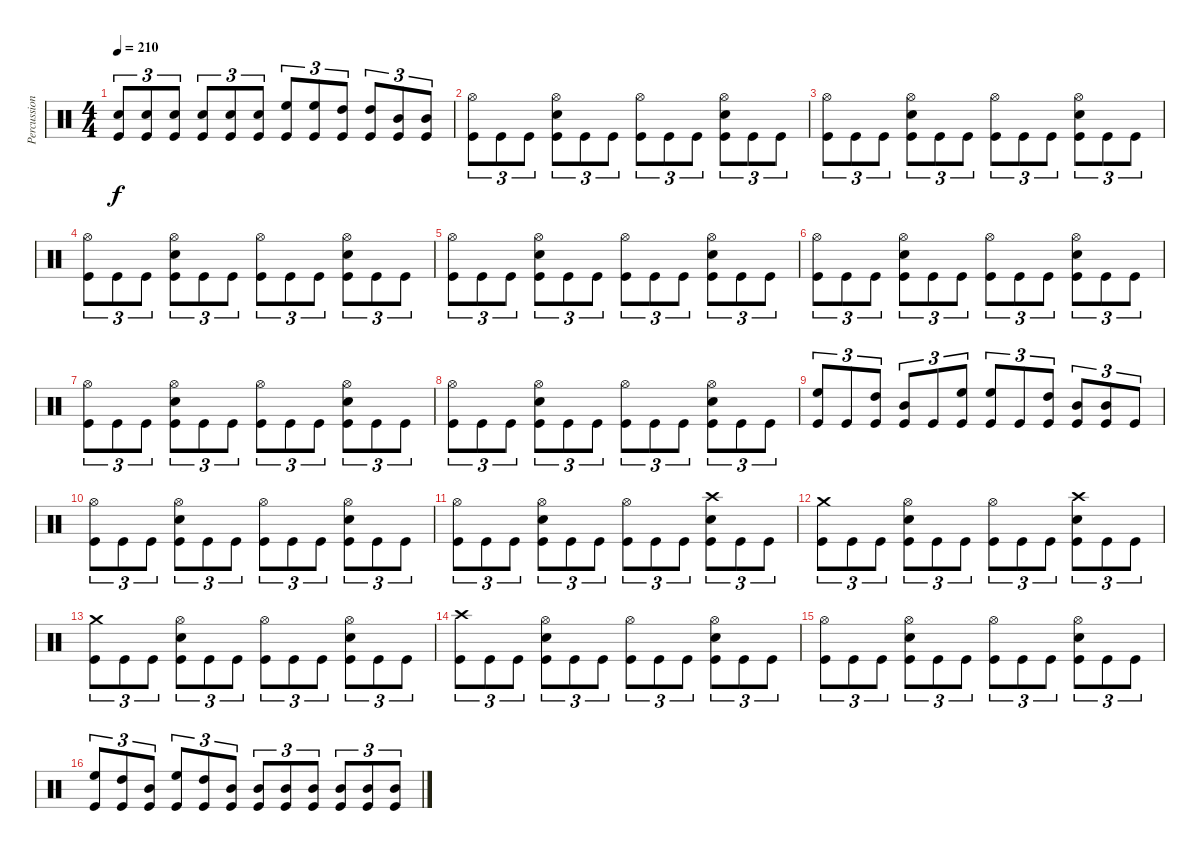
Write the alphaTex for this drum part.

\track ("Percussion" "Percussion") {instrument percussion}
\staff {score}
\articulation defaults
\ts (4 4)
\tempo 210
\clef neutral
\ks c
("Snare (hit) 2" "Kick (hit)").8{tu (3 2) dy f} ("Snare (hit) 2" "Kick (hit)").8{tu (3 2)} ("Snare (hit) 2" "Kick (hit)").8{tu (3 2)} ("Snare (hit) 2" "Kick (hit)").8{tu (3 2)} ("Snare (hit) 2" "Kick (hit)").8{tu (3 2)} ("Snare (hit) 2" "Kick (hit)").8{tu (3 2)} ("High Floor Tom (hit)" "Kick (hit)").8{tu (3 2)} ("High Floor Tom (hit)" "Kick (hit)").8{tu (3 2)} ("High Tom (hit)" "Kick (hit)").8{tu (3 2)} ("High Tom (hit)" "Kick (hit)").8{tu (3 2)} ("Mid Tom (hit)" "Kick (hit)").8{tu (3 2)} ("Mid Tom (hit)" "Kick (hit)").8{tu (3 2)} |
("Hi-Hat (open)" "Kick (hit)").8{tu (3 2)} "Kick (hit)".8{tu (3 2)} "Kick (hit)".8{tu (3 2)} ("Snare (hit) 2" "Hi-Hat (open)" "Kick (hit)").8{tu (3 2)} "Kick (hit)".8{tu (3 2)} "Kick (hit)".8{tu (3 2)} ("Hi-Hat (open)" "Kick (hit)").8{tu (3 2)} "Kick (hit)".8{tu (3 2)} "Kick (hit)".8{tu (3 2)} ("Snare (hit) 2" "Hi-Hat (open)" "Kick (hit)").8{tu (3 2)} "Kick (hit)".8{tu (3 2)} "Kick (hit)".8{tu (3 2)} |
("Hi-Hat (open)" "Kick (hit)").8{tu (3 2)} "Kick (hit)".8{tu (3 2)} "Kick (hit)".8{tu (3 2)} ("Snare (hit) 2" "Hi-Hat (open)" "Kick (hit)").8{tu (3 2)} "Kick (hit)".8{tu (3 2)} "Kick (hit)".8{tu (3 2)} ("Hi-Hat (open)" "Kick (hit)").8{tu (3 2)} "Kick (hit)".8{tu (3 2)} "Kick (hit)".8{tu (3 2)} ("Snare (hit) 2" "Hi-Hat (open)" "Kick (hit)").8{tu (3 2)} "Kick (hit)".8{tu (3 2)} "Kick (hit)".8{tu (3 2)} |
("Hi-Hat (open)" "Kick (hit)").8{tu (3 2)} "Kick (hit)".8{tu (3 2)} "Kick (hit)".8{tu (3 2)} ("Snare (hit) 2" "Hi-Hat (open)" "Kick (hit)").8{tu (3 2)} "Kick (hit)".8{tu (3 2)} "Kick (hit)".8{tu (3 2)} ("Hi-Hat (open)" "Kick (hit)").8{tu (3 2)} "Kick (hit)".8{tu (3 2)} "Kick (hit)".8{tu (3 2)} ("Snare (hit) 2" "Hi-Hat (open)" "Kick (hit)").8{tu (3 2)} "Kick (hit)".8{tu (3 2)} "Kick (hit)".8{tu (3 2)} |
("Hi-Hat (open)" "Kick (hit)").8{tu (3 2)} "Kick (hit)".8{tu (3 2)} "Kick (hit)".8{tu (3 2)} ("Snare (hit) 2" "Hi-Hat (open)" "Kick (hit)").8{tu (3 2)} "Kick (hit)".8{tu (3 2)} "Kick (hit)".8{tu (3 2)} ("Hi-Hat (open)" "Kick (hit)").8{tu (3 2)} "Kick (hit)".8{tu (3 2)} "Kick (hit)".8{tu (3 2)} ("Snare (hit) 2" "Hi-Hat (open)" "Kick (hit)").8{tu (3 2)} "Kick (hit)".8{tu (3 2)} "Kick (hit)".8{tu (3 2)} |
("Hi-Hat (open)" "Kick (hit)").8{tu (3 2)} "Kick (hit)".8{tu (3 2)} "Kick (hit)".8{tu (3 2)} ("Snare (hit) 2" "Hi-Hat (open)" "Kick (hit)").8{tu (3 2)} "Kick (hit)".8{tu (3 2)} "Kick (hit)".8{tu (3 2)} ("Hi-Hat (open)" "Kick (hit)").8{tu (3 2)} "Kick (hit)".8{tu (3 2)} "Kick (hit)".8{tu (3 2)} ("Snare (hit) 2" "Hi-Hat (open)" "Kick (hit)").8{tu (3 2)} "Kick (hit)".8{tu (3 2)} "Kick (hit)".8{tu (3 2)} |
("Hi-Hat (open)" "Kick (hit)").8{tu (3 2)} "Kick (hit)".8{tu (3 2)} "Kick (hit)".8{tu (3 2)} ("Snare (hit) 2" "Hi-Hat (open)" "Kick (hit)").8{tu (3 2)} "Kick (hit)".8{tu (3 2)} "Kick (hit)".8{tu (3 2)} ("Hi-Hat (open)" "Kick (hit)").8{tu (3 2)} "Kick (hit)".8{tu (3 2)} "Kick (hit)".8{tu (3 2)} ("Snare (hit) 2" "Hi-Hat (open)" "Kick (hit)").8{tu (3 2)} "Kick (hit)".8{tu (3 2)} "Kick (hit)".8{tu (3 2)} |
("Hi-Hat (open)" "Kick (hit)").8{tu (3 2)} "Kick (hit)".8{tu (3 2)} "Kick (hit)".8{tu (3 2)} ("Snare (hit) 2" "Hi-Hat (open)" "Kick (hit)").8{tu (3 2)} "Kick (hit)".8{tu (3 2)} "Kick (hit)".8{tu (3 2)} ("Hi-Hat (open)" "Kick (hit)").8{tu (3 2)} "Kick (hit)".8{tu (3 2)} "Kick (hit)".8{tu (3 2)} ("Snare (hit) 2" "Hi-Hat (open)" "Kick (hit)").8{tu (3 2)} "Kick (hit)".8{tu (3 2)} "Kick (hit)".8{tu (3 2)} |
("High Floor Tom (hit)" "Kick (hit)").8{tu (3 2)} "Kick (hit)".8{tu (3 2)} ("High Tom (hit)" "Kick (hit)").8{tu (3 2)} ("Mid Tom (hit)" "Kick (hit)").8{tu (3 2)} "Kick (hit)".8{tu (3 2)} ("High Floor Tom (hit)" "Kick (hit)").8{tu (3 2)} ("High Floor Tom (hit)" "Kick (hit)").8{tu (3 2)} "Kick (hit)".8{tu (3 2)} ("High Tom (hit)" "Kick (hit)").8{tu (3 2)} ("Mid Tom (hit)" "Kick (hit)").8{tu (3 2)} ("Mid Tom (hit)" "Kick (hit)").8{tu (3 2)} "Kick (hit)".8{tu (3 2)} |
("Hi-Hat (open)" "Kick (hit)").8{tu (3 2)} "Kick (hit)".8{tu (3 2)} "Kick (hit)".8{tu (3 2)} ("Snare (hit) 2" "Hi-Hat (open)" "Kick (hit)").8{tu (3 2)} "Kick (hit)".8{tu (3 2)} "Kick (hit)".8{tu (3 2)} ("Hi-Hat (open)" "Kick (hit)").8{tu (3 2)} "Kick (hit)".8{tu (3 2)} "Kick (hit)".8{tu (3 2)} ("Snare (hit) 2" "Hi-Hat (open)" "Kick (hit)").8{tu (3 2)} "Kick (hit)".8{tu (3 2)} "Kick (hit)".8{tu (3 2)} |
("Hi-Hat (open)" "Kick (hit)").8{tu (3 2)} "Kick (hit)".8{tu (3 2)} "Kick (hit)".8{tu (3 2)} ("Snare (hit) 2" "Hi-Hat (open)" "Kick (hit)").8{tu (3 2)} "Kick (hit)".8{tu (3 2)} "Kick (hit)".8{tu (3 2)} ("Hi-Hat (open)" "Kick (hit)").8{tu (3 2)} "Kick (hit)".8{tu (3 2)} "Kick (hit)".8{tu (3 2)} ("Snare (hit) 2" "Crash high (hit)" "Kick (hit)").8{tu (3 2)} "Kick (hit)".8{tu (3 2)} "Kick (hit)".8{tu (3 2)} |
("Crash medium (hit)" "Kick (hit)").8{tu (3 2)} "Kick (hit)".8{tu (3 2)} "Kick (hit)".8{tu (3 2)} ("Snare (hit) 2" "Hi-Hat (open)" "Kick (hit)").8{tu (3 2)} "Kick (hit)".8{tu (3 2)} "Kick (hit)".8{tu (3 2)} ("Hi-Hat (open)" "Kick (hit)").8{tu (3 2)} "Kick (hit)".8{tu (3 2)} "Kick (hit)".8{tu (3 2)} ("Snare (hit) 2" "Crash high (hit)" "Kick (hit)").8{tu (3 2)} "Kick (hit)".8{tu (3 2)} "Kick (hit)".8{tu (3 2)} |
("Crash medium (hit)" "Kick (hit)").8{tu (3 2)} "Kick (hit)".8{tu (3 2)} "Kick (hit)".8{tu (3 2)} ("Snare (hit) 2" "Hi-Hat (open)" "Kick (hit)").8{tu (3 2)} "Kick (hit)".8{tu (3 2)} "Kick (hit)".8{tu (3 2)} ("Hi-Hat (open)" "Kick (hit)").8{tu (3 2)} "Kick (hit)".8{tu (3 2)} "Kick (hit)".8{tu (3 2)} ("Snare (hit) 2" "Hi-Hat (open)" "Kick (hit)").8{tu (3 2)} "Kick (hit)".8{tu (3 2)} "Kick (hit)".8{tu (3 2)} |
("Crash high (hit)" "Kick (hit)").8{tu (3 2)} "Kick (hit)".8{tu (3 2)} "Kick (hit)".8{tu (3 2)} ("Snare (hit) 2" "Hi-Hat (open)" "Kick (hit)").8{tu (3 2)} "Kick (hit)".8{tu (3 2)} "Kick (hit)".8{tu (3 2)} ("Hi-Hat (open)" "Kick (hit)").8{tu (3 2)} "Kick (hit)".8{tu (3 2)} "Kick (hit)".8{tu (3 2)} ("Snare (hit) 2" "Hi-Hat (open)" "Kick (hit)").8{tu (3 2)} "Kick (hit)".8{tu (3 2)} "Kick (hit)".8{tu (3 2)} |
("Hi-Hat (open)" "Kick (hit)").8{tu (3 2)} "Kick (hit)".8{tu (3 2)} "Kick (hit)".8{tu (3 2)} ("Snare (hit) 2" "Hi-Hat (open)" "Kick (hit)").8{tu (3 2)} "Kick (hit)".8{tu (3 2)} "Kick (hit)".8{tu (3 2)} ("Hi-Hat (open)" "Kick (hit)").8{tu (3 2)} "Kick (hit)".8{tu (3 2)} "Kick (hit)".8{tu (3 2)} ("Snare (hit) 2" "Hi-Hat (open)" "Kick (hit)").8{tu (3 2)} "Kick (hit)".8{tu (3 2)} "Kick (hit)".8{tu (3 2)} |
("High Floor Tom (hit)" "Kick (hit)").8{tu (3 2)} ("High Tom (hit)" "Kick (hit)").8{tu (3 2)} ("Mid Tom (hit)" "Kick (hit)").8{tu (3 2)} ("High Floor Tom (hit)" "Kick (hit)").8{tu (3 2)} ("High Tom (hit)" "Kick (hit)").8{tu (3 2)} ("Mid Tom (hit)" "Kick (hit)").8{tu (3 2)} ("Mid Tom (hit)" "Kick (hit)").8{tu (3 2)} ("Mid Tom (hit)" "Kick (hit)").8{tu (3 2)} ("Mid Tom (hit)" "Kick (hit)").8{tu (3 2)} ("Mid Tom (hit)" "Kick (hit)").8{tu (3 2)} ("Mid Tom (hit)" "Kick (hit)").8{tu (3 2)} ("Mid Tom (hit)" "Kick (hit)").8{tu (3 2)}
